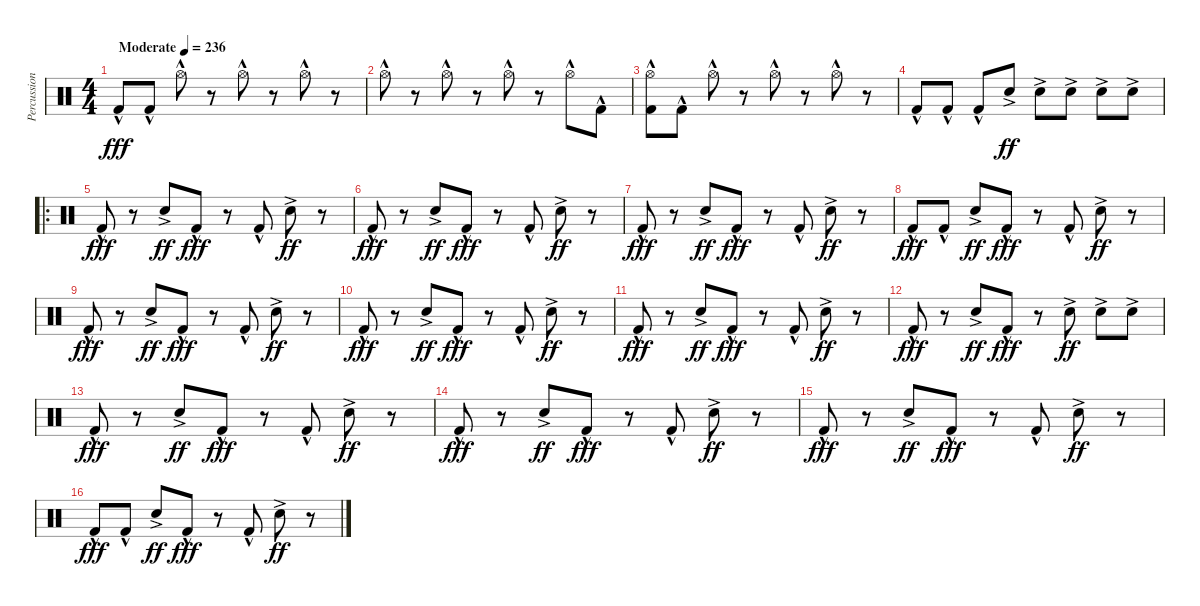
\track ("Percussion" "Percussion") {instrument percussion}
\staff {score}
\articulation defaults
\ts (4 4)
\tempo (236 "Moderate")
\clef neutral
\ks c "Kick (hit) 2"{hac}.8{dy fff} "Kick (hit) 2"{hac}.8 "Hi-Hat (open)"{hac}.8
r.8 "Hi-Hat (open)"{hac}.8 r.8 "Hi-Hat (open)"{hac}.8 r.8 |
"Hi-Hat (open)"{hac}.8 r.8 "Hi-Hat (open)"{hac}.8 r.8 "Hi-Hat (open)"{hac}.8 r.8 "Hi-Hat (open)"{hac}.8 "Kick (hit) 2"{hac}.8 |
("Hi-Hat (open)"{hac} "Kick (hit) 2"{hac}).8 "Kick (hit) 2"{hac}.8 "Hi-Hat (open)"{hac}.8 r.8 "Hi-Hat (open)"{hac}.8 r.8 "Hi-Hat (open)"{hac}.8 r.8 |
"Kick (hit) 2"{hac}.8 "Kick (hit) 2"{hac}.8 "Kick (hit) 2"{hac}.8 "Snare (hit) 2"{ac}.8{dy ff} "Snare (hit) 2"{ac}.8 "Snare (hit) 2"{ac}.8 "Snare (hit) 2"{ac}.8 "Snare (hit) 2"{ac}.8 |
\ro "Kick (hit) 2"{hac}.8{dy fff}
r.8 "Snare (hit) 2"{ac}.8{dy ff} "Kick (hit) 2"{hac}.8{dy fff} r.8 "Kick (hit) 2"{hac}.8 "Snare (hit) 2"{ac}.8{dy ff} r.8 |
"Kick (hit) 2"{hac}.8{dy fff} r.8 "Snare (hit) 2"{ac}.8{dy ff} "Kick (hit) 2"{hac}.8{dy fff} r.8 "Kick (hit) 2"{hac}.8 "Snare (hit) 2"{ac}.8{dy ff} r.8 |
"Kick (hit) 2"{hac}.8{dy fff} r.8 "Snare (hit) 2"{ac}.8{dy ff} "Kick (hit) 2"{hac}.8{dy fff} r.8 "Kick (hit) 2"{hac}.8 "Snare (hit) 2"{ac}.8{dy ff} r.8 |
"Kick (hit) 2"{hac}.8{dy fff} "Kick (hit) 2"{hac}.8 "Snare (hit) 2"{ac}.8{dy ff} "Kick (hit) 2"{hac}.8{dy fff} r.8 "Kick (hit) 2"{hac}.8 "Snare (hit) 2"{ac}.8{dy ff} r.8 |
"Kick (hit) 2"{hac}.8{dy fff} r.8 "Snare (hit) 2"{ac}.8{dy ff} "Kick (hit) 2"{hac}.8{dy fff} r.8 "Kick (hit) 2"{hac}.8 "Snare (hit) 2"{ac}.8{dy ff} r.8 |
"Kick (hit) 2"{hac}.8{dy fff} r.8 "Snare (hit) 2"{ac}.8{dy ff} "Kick (hit) 2"{hac}.8{dy fff} r.8 "Kick (hit) 2"{hac}.8 "Snare (hit) 2"{ac}.8{dy ff} r.8 |
"Kick (hit) 2"{hac}.8{dy fff} r.8 "Snare (hit) 2"{ac}.8{dy ff} "Kick (hit) 2"{hac}.8{dy fff} r.8 "Kick (hit) 2"{hac}.8 "Snare (hit) 2"{ac}.8{dy ff} r.8 |
"Kick (hit) 2"{hac}.8{dy fff} r.8 "Snare (hit) 2"{ac}.8{dy ff} "Kick (hit) 2"{hac}.8{dy fff} r.8 "Snare (hit) 2"{ac}.8{dy ff} "Snare (hit) 2"{ac}.8 "Snare (hit) 2"{ac}.8 |
"Kick (hit) 2"{hac}.8{dy fff} r.8 "Snare (hit) 2"{ac}.8{dy ff} "Kick (hit) 2"{hac}.8{dy fff} r.8 "Kick (hit) 2"{hac}.8 "Snare (hit) 2"{ac}.8{dy ff} r.8 |
"Kick (hit) 2"{hac}.8{dy fff} r.8 "Snare (hit) 2"{ac}.8{dy ff} "Kick (hit) 2"{hac}.8{dy fff} r.8 "Kick (hit) 2"{hac}.8 "Snare (hit) 2"{ac}.8{dy ff} r.8 |
"Kick (hit) 2"{hac}.8{dy fff} r.8 "Snare (hit) 2"{ac}.8{dy ff} "Kick (hit) 2"{hac}.8{dy fff} r.8 "Kick (hit) 2"{hac}.8 "Snare (hit) 2"{ac}.8{dy ff} r.8 |
"Kick (hit) 2"{hac}.8{dy fff} "Kick (hit) 2"{hac}.8 "Snare (hit) 2"{ac}.8{dy ff} "Kick (hit) 2"{hac}.8{dy fff} r.8 "Kick (hit) 2"{hac}.8 "Snare (hit) 2"{ac}.8{dy ff} r.8
